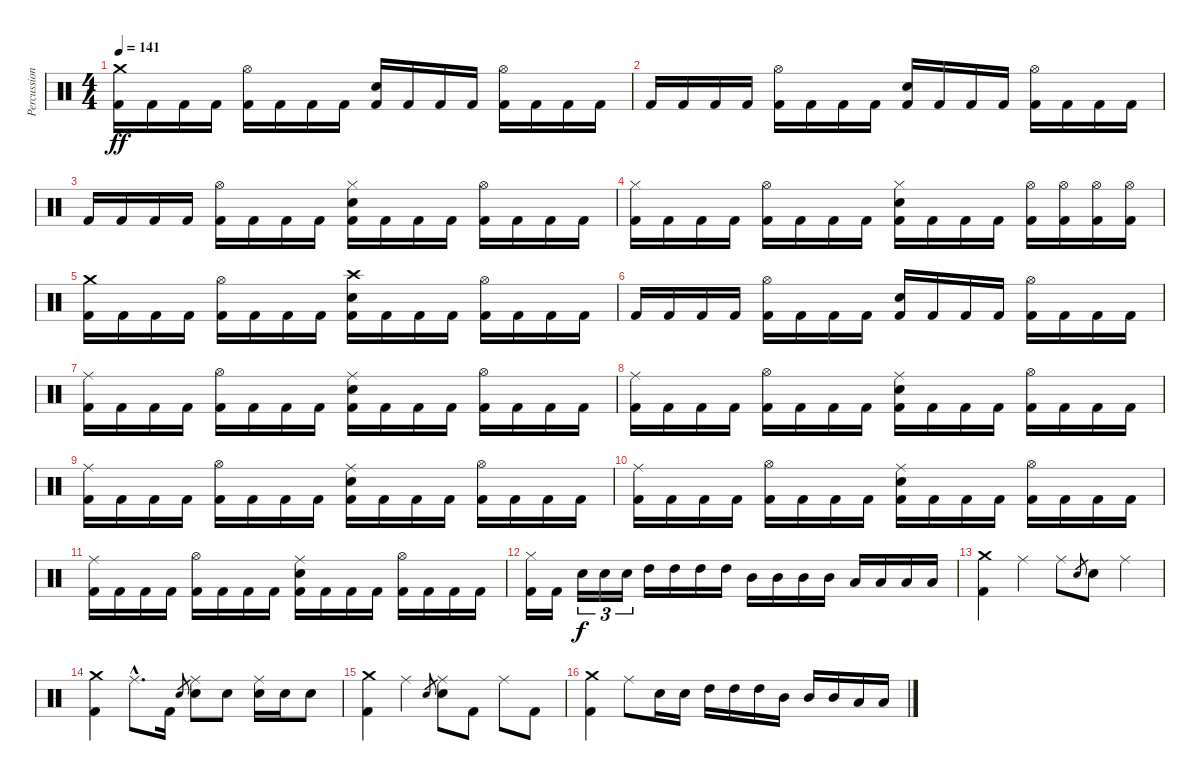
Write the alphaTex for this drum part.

\track ("Percussion" "Percussion") {instrument percussion}
\staff {score}
\articulation defaults
\ts (4 4)
\tempo 141
\clef neutral
\ks c
("Kick (hit) 2" "Crash medium (hit)").16{dy ff} "Kick (hit) 2".16 "Kick (hit) 2".16 "Kick (hit) 2".16 ("Kick (hit) 2" "Hi-Hat (open)").16 "Kick (hit) 2".16 "Kick (hit) 2".16 "Kick (hit) 2".16 ("Kick (hit) 2" "Electric Snare (hit)").16 "Kick (hit) 2".16 "Kick (hit) 2".16 "Kick (hit) 2".16 ("Kick (hit) 2" "Hi-Hat (open)").16 "Kick (hit) 2".16 "Kick (hit) 2".16 "Kick (hit) 2".16 |
"Kick (hit) 2".16 "Kick (hit) 2".16 "Kick (hit) 2".16 "Kick (hit) 2".16 ("Kick (hit) 2" "Hi-Hat (open)").16 "Kick (hit) 2".16 "Kick (hit) 2".16 "Kick (hit) 2".16 ("Kick (hit) 2" "Electric Snare (hit)").16 "Kick (hit) 2".16 "Kick (hit) 2".16 "Kick (hit) 2".16 ("Kick (hit) 2" "Hi-Hat (open)").16 "Kick (hit) 2".16 "Kick (hit) 2".16 "Kick (hit) 2".16 |
"Kick (hit) 2".16 "Kick (hit) 2".16 "Kick (hit) 2".16 "Kick (hit) 2".16 ("Kick (hit) 2" "Hi-Hat (open)").16 "Kick (hit) 2".16 "Kick (hit) 2".16 "Kick (hit) 2".16 ("Kick (hit) 2" "Electric Snare (hit)" "Hi-Hat (closed)").16 "Kick (hit) 2".16 "Kick (hit) 2".16 "Kick (hit) 2".16 ("Kick (hit) 2" "Hi-Hat (open)").16 "Kick (hit) 2".16 "Kick (hit) 2".16 "Kick (hit) 2".16 |
("Kick (hit) 2" "Hi-Hat (closed)").16 "Kick (hit) 2".16 "Kick (hit) 2".16 "Kick (hit) 2".16 ("Kick (hit) 2" "Hi-Hat (open)").16 "Kick (hit) 2".16 "Kick (hit) 2".16 "Kick (hit) 2".16 ("Kick (hit) 2" "Electric Snare (hit)" "Hi-Hat (closed)").16 "Kick (hit) 2".16 "Kick (hit) 2".16 "Kick (hit) 2".16 ("Kick (hit) 2" "Hi-Hat (open)").16 ("Kick (hit) 2" "Hi-Hat (open)").16 ("Kick (hit) 2" "Hi-Hat (open)").16 ("Kick (hit) 2" "Hi-Hat (open)").16 |
("Kick (hit) 2" "Crash medium (hit)").16 "Kick (hit) 2".16 "Kick (hit) 2".16 "Kick (hit) 2".16 ("Kick (hit) 2" "Hi-Hat (open)").16 "Kick (hit) 2".16 "Kick (hit) 2".16 "Kick (hit) 2".16 ("Kick (hit) 2" "Electric Snare (hit)" "Crash high (hit)").16 "Kick (hit) 2".16 "Kick (hit) 2".16 "Kick (hit) 2".16 ("Kick (hit) 2" "Hi-Hat (open)").16 "Kick (hit) 2".16 "Kick (hit) 2".16 "Kick (hit) 2".16 |
"Kick (hit) 2".16 "Kick (hit) 2".16 "Kick (hit) 2".16 "Kick (hit) 2".16 ("Kick (hit) 2" "Hi-Hat (open)").16 "Kick (hit) 2".16 "Kick (hit) 2".16 "Kick (hit) 2".16 ("Kick (hit) 2" "Electric Snare (hit)").16 "Kick (hit) 2".16 "Kick (hit) 2".16 "Kick (hit) 2".16 ("Kick (hit) 2" "Hi-Hat (open)").16 "Kick (hit) 2".16 "Kick (hit) 2".16 "Kick (hit) 2".16 |
("Kick (hit) 2" "Ride (middle)").16 "Kick (hit) 2".16 "Kick (hit) 2".16 "Kick (hit) 2".16 ("Kick (hit) 2" "Hi-Hat (open)").16 "Kick (hit) 2".16 "Kick (hit) 2".16 "Kick (hit) 2".16 ("Kick (hit) 2" "Electric Snare (hit)" "Ride (middle)").16 "Kick (hit) 2".16 "Kick (hit) 2".16 "Kick (hit) 2".16 ("Kick (hit) 2" "Hi-Hat (open)").16 "Kick (hit) 2".16 "Kick (hit) 2".16 "Kick (hit) 2".16 |
("Kick (hit) 2" "Ride (middle)").16 "Kick (hit) 2".16 "Kick (hit) 2".16 "Kick (hit) 2".16 ("Kick (hit) 2" "Hi-Hat (open)").16 "Kick (hit) 2".16 "Kick (hit) 2".16 "Kick (hit) 2".16 ("Kick (hit) 2" "Electric Snare (hit)" "Ride (middle)").16 "Kick (hit) 2".16 "Kick (hit) 2".16 "Kick (hit) 2".16 ("Kick (hit) 2" "Hi-Hat (open)").16 "Kick (hit) 2".16 "Kick (hit) 2".16 "Kick (hit) 2".16 |
("Kick (hit) 2" "Ride (middle)").16 "Kick (hit) 2".16 "Kick (hit) 2".16 "Kick (hit) 2".16 ("Kick (hit) 2" "Hi-Hat (open)").16 "Kick (hit) 2".16 "Kick (hit) 2".16 "Kick (hit) 2".16 ("Kick (hit) 2" "Electric Snare (hit)" "Ride (middle)").16 "Kick (hit) 2".16 "Kick (hit) 2".16 "Kick (hit) 2".16 ("Kick (hit) 2" "Hi-Hat (open)").16 "Kick (hit) 2".16 "Kick (hit) 2".16 "Kick (hit) 2".16 |
("Kick (hit) 2" "Ride (middle)").16 "Kick (hit) 2".16 "Kick (hit) 2".16 "Kick (hit) 2".16 ("Kick (hit) 2" "Hi-Hat (open)").16 "Kick (hit) 2".16 "Kick (hit) 2".16 "Kick (hit) 2".16 ("Kick (hit) 2" "Electric Snare (hit)" "Ride (middle)").16 "Kick (hit) 2".16 "Kick (hit) 2".16 "Kick (hit) 2".16 ("Kick (hit) 2" "Hi-Hat (open)").16 "Kick (hit) 2".16 "Kick (hit) 2".16 "Kick (hit) 2".16 |
("Kick (hit) 2" "Ride (middle)").16 "Kick (hit) 2".16 "Kick (hit) 2".16 "Kick (hit) 2".16 ("Kick (hit) 2" "Hi-Hat (open)").16 "Kick (hit) 2".16 "Kick (hit) 2".16 "Kick (hit) 2".16 ("Kick (hit) 2" "Electric Snare (hit)" "Ride (middle)").16 "Kick (hit) 2".16 "Kick (hit) 2".16 "Kick (hit) 2".16 ("Kick (hit) 2" "Hi-Hat (open)").16 "Kick (hit) 2".16 "Kick (hit) 2".16 "Kick (hit) 2".16 |
("Kick (hit) 2" "Hi-Hat (closed)").16 "Kick (hit) 2".16 "Electric Snare (hit)".16{tu (3 2) dy f} "Electric Snare (hit)".16{tu (3 2)} "Electric Snare (hit)".16{tu (3 2)} "High Tom (hit)".16 "High Tom (hit)".16 "High Tom (hit)".16 "High Tom (hit)".16 "Mid Tom (hit)".16 "Mid Tom (hit)".16 "Mid Tom (hit)".16 "Mid Tom (hit)".16 "Low Tom (hit)".16 "Low Tom (hit)".16 "Low Tom (hit)".16 "Low Tom (hit)".16 |
("Kick (hit) 2" "Crash medium (hit)").4 "Ride (middle)".4 "Ride (middle)".8 "Electric Snare (hit)".8{gr} "Electric Snare (hit)".8 "Ride (middle)".4 |
("Kick (hit) 2" "Crash medium (hit)").4 "Ride (middle)"{hac}.8{d} "Kick (hit) 2".16 "Electric Snare (hit)".8{gr} ("Electric Snare (hit)" "Ride (middle)").8 "Electric Snare (hit)".8 ("Electric Snare (hit)" "Ride (middle)").16 "Electric Snare (hit)".16 "Electric Snare (hit)".8 |
("Kick (hit) 2" "Crash medium (hit)").4 "Ride (middle)".4 "Electric Snare (hit)".8{gr} ("Electric Snare (hit)" "Ride (middle)").8 "Kick (hit) 2".8 "Ride (middle)".8 "Kick (hit) 2".8 |
("Kick (hit) 2" "Crash medium (hit)").4 "Ride (middle)".8 "Electric Snare (hit)".16 "Electric Snare (hit)".16 "High Tom (hit)".16 "High Tom (hit)".16 "High Tom (hit)".16 "Mid Tom (hit)".16 "Mid Tom (hit)".16 "Mid Tom (hit)".16 "Low Tom (hit)".16 "Low Tom (hit)".16
